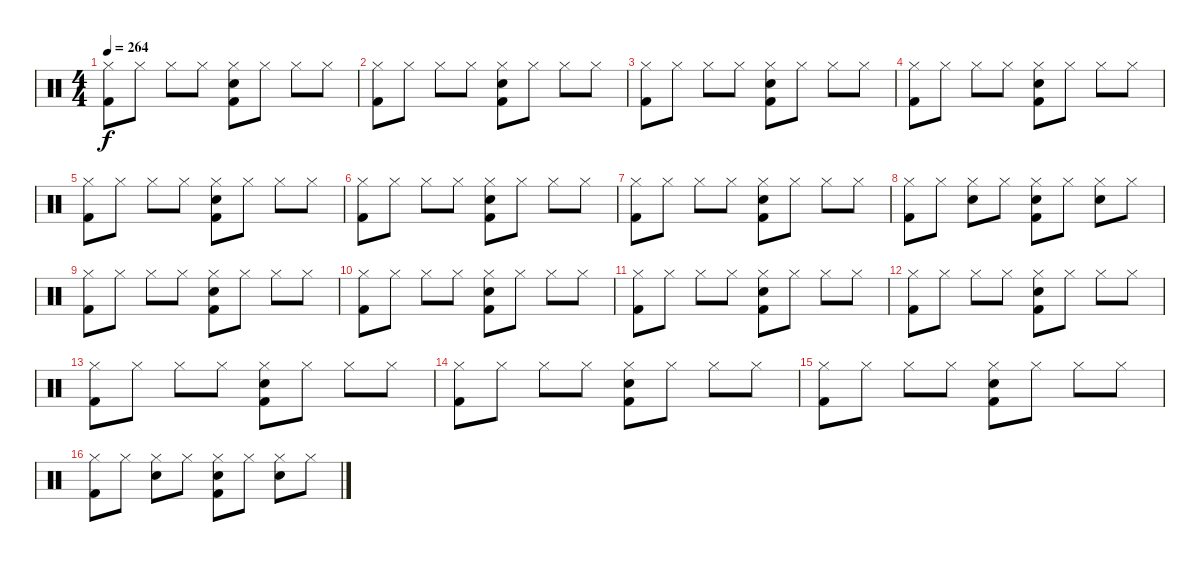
\track "" {instrument percussion}
\staff {score}
\articulation defaults
\ts (4 4)
\tempo 264
\clef neutral
\ks c
("Kick (hit) 2" "Hi-Hat (closed)").8{dy f} "Hi-Hat (closed)".8 "Hi-Hat (closed)".8 "Hi-Hat (closed)".8 ("Snare (hit) 2" "Kick (hit) 2" "Hi-Hat (closed)").8 "Hi-Hat (closed)".8 "Hi-Hat (closed)".8 "Hi-Hat (closed)".8 |
("Kick (hit) 2" "Hi-Hat (closed)").8 "Hi-Hat (closed)".8 "Hi-Hat (closed)".8 "Hi-Hat (closed)".8 ("Snare (hit) 2" "Kick (hit) 2" "Hi-Hat (closed)").8 "Hi-Hat (closed)".8 "Hi-Hat (closed)".8 "Hi-Hat (closed)".8 |
("Kick (hit) 2" "Hi-Hat (closed)").8 "Hi-Hat (closed)".8 "Hi-Hat (closed)".8 "Hi-Hat (closed)".8 ("Snare (hit) 2" "Kick (hit) 2" "Hi-Hat (closed)").8 "Hi-Hat (closed)".8 "Hi-Hat (closed)".8 "Hi-Hat (closed)".8 |
("Kick (hit) 2" "Hi-Hat (closed)").8 "Hi-Hat (closed)".8 "Hi-Hat (closed)".8 "Hi-Hat (closed)".8 ("Snare (hit) 2" "Kick (hit) 2" "Hi-Hat (closed)").8 "Hi-Hat (closed)".8 "Hi-Hat (closed)".8 "Hi-Hat (closed)".8 |
("Kick (hit) 2" "Hi-Hat (closed)").8 "Hi-Hat (closed)".8 "Hi-Hat (closed)".8 "Hi-Hat (closed)".8 ("Snare (hit) 2" "Kick (hit) 2" "Hi-Hat (closed)").8 "Hi-Hat (closed)".8 "Hi-Hat (closed)".8 "Hi-Hat (closed)".8 |
("Kick (hit) 2" "Hi-Hat (closed)").8 "Hi-Hat (closed)".8 "Hi-Hat (closed)".8 "Hi-Hat (closed)".8 ("Snare (hit) 2" "Kick (hit) 2" "Hi-Hat (closed)").8 "Hi-Hat (closed)".8 "Hi-Hat (closed)".8 "Hi-Hat (closed)".8 |
("Kick (hit) 2" "Hi-Hat (closed)").8 "Hi-Hat (closed)".8 "Hi-Hat (closed)".8 "Hi-Hat (closed)".8 ("Snare (hit) 2" "Kick (hit) 2" "Hi-Hat (closed)").8 "Hi-Hat (closed)".8 "Hi-Hat (closed)".8 "Hi-Hat (closed)".8 |
("Kick (hit) 2" "Hi-Hat (closed)").8 "Hi-Hat (closed)".8 ("Snare (hit) 2" "Hi-Hat (closed)").8 "Hi-Hat (closed)".8 ("Snare (hit) 2" "Kick (hit) 2" "Hi-Hat (closed)").8 "Hi-Hat (closed)".8 ("Snare (hit) 2" "Hi-Hat (closed)").8 "Hi-Hat (closed)".8 |
("Kick (hit) 2" "Hi-Hat (closed)").8 "Hi-Hat (closed)".8 "Hi-Hat (closed)".8 "Hi-Hat (closed)".8 ("Snare (hit) 2" "Kick (hit) 2" "Hi-Hat (closed)").8 "Hi-Hat (closed)".8 "Hi-Hat (closed)".8 "Hi-Hat (closed)".8 |
("Kick (hit) 2" "Hi-Hat (closed)").8 "Hi-Hat (closed)".8 "Hi-Hat (closed)".8 "Hi-Hat (closed)".8 ("Snare (hit) 2" "Kick (hit) 2" "Hi-Hat (closed)").8 "Hi-Hat (closed)".8 "Hi-Hat (closed)".8 "Hi-Hat (closed)".8 |
("Kick (hit) 2" "Hi-Hat (closed)").8 "Hi-Hat (closed)".8 "Hi-Hat (closed)".8 "Hi-Hat (closed)".8 ("Snare (hit) 2" "Kick (hit) 2" "Hi-Hat (closed)").8 "Hi-Hat (closed)".8 "Hi-Hat (closed)".8 "Hi-Hat (closed)".8 |
("Kick (hit) 2" "Hi-Hat (closed)").8 "Hi-Hat (closed)".8 "Hi-Hat (closed)".8 "Hi-Hat (closed)".8 ("Snare (hit) 2" "Kick (hit) 2" "Hi-Hat (closed)").8 "Hi-Hat (closed)".8 "Hi-Hat (closed)".8 "Hi-Hat (closed)".8 |
("Kick (hit) 2" "Hi-Hat (closed)").8 "Hi-Hat (closed)".8 "Hi-Hat (closed)".8 "Hi-Hat (closed)".8 ("Snare (hit) 2" "Kick (hit) 2" "Hi-Hat (closed)").8 "Hi-Hat (closed)".8 "Hi-Hat (closed)".8 "Hi-Hat (closed)".8 |
("Kick (hit) 2" "Hi-Hat (closed)").8 "Hi-Hat (closed)".8 "Hi-Hat (closed)".8 "Hi-Hat (closed)".8 ("Snare (hit) 2" "Kick (hit) 2" "Hi-Hat (closed)").8 "Hi-Hat (closed)".8 "Hi-Hat (closed)".8 "Hi-Hat (closed)".8 |
("Kick (hit) 2" "Hi-Hat (closed)").8 "Hi-Hat (closed)".8 "Hi-Hat (closed)".8 "Hi-Hat (closed)".8 ("Snare (hit) 2" "Kick (hit) 2" "Hi-Hat (closed)").8 "Hi-Hat (closed)".8 "Hi-Hat (closed)".8 "Hi-Hat (closed)".8 |
("Kick (hit) 2" "Hi-Hat (closed)").8 "Hi-Hat (closed)".8 ("Snare (hit) 2" "Hi-Hat (closed)").8 "Hi-Hat (closed)".8 ("Snare (hit) 2" "Kick (hit) 2" "Hi-Hat (closed)").8 "Hi-Hat (closed)".8 ("Snare (hit) 2" "Hi-Hat (closed)").8 "Hi-Hat (closed)".8
